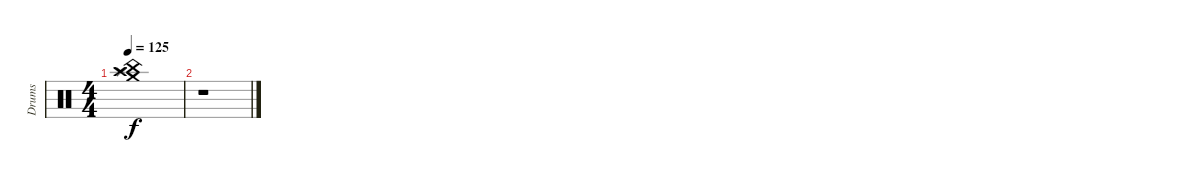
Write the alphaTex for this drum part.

\track ("Drums" "Drums") {instrument percussion}
\staff {score}
\articulation defaults
\ts (4 4)
\tempo 125
\clef neutral
\ks c
("China (hit)" "Splash (hit)" "Crash high (hit)" "Crash medium (hit)").1{dy f} |
r.1
